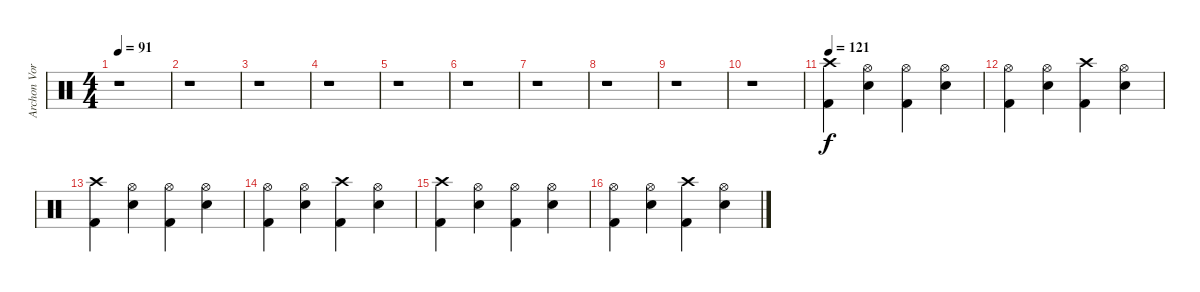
\track ("Archon Vorskaath" "Archon Vor") {instrument percussion}
\staff {score}
\articulation defaults
\ts (4 4)
\tempo 91
\clef neutral
\ks c
r.1{dy f} |
r.1 |
r.1 |
r.1 |
r.1 |
r.1 |
r.1 |
r.1 |
r.1 |
r.1 |
\tempo 121
("Crash high (hit)" "Kick (hit) 2").4 ("Hi-Hat (open)" "Electric Snare (hit)").4 ("Hi-Hat (open)" "Kick (hit) 2").4 ("Hi-Hat (open)" "Electric Snare (hit)").4 |
("Hi-Hat (open)" "Kick (hit) 2").4 ("Hi-Hat (open)" "Electric Snare (hit)").4 ("Crash high (hit)" "Kick (hit) 2").4 ("Hi-Hat (open)" "Electric Snare (hit)").4 |
("Crash high (hit)" "Kick (hit) 2").4 ("Hi-Hat (open)" "Electric Snare (hit)").4 ("Hi-Hat (open)" "Kick (hit) 2").4 ("Hi-Hat (open)" "Electric Snare (hit)").4 |
("Hi-Hat (open)" "Kick (hit) 2").4 ("Hi-Hat (open)" "Electric Snare (hit)").4 ("Crash high (hit)" "Kick (hit) 2").4 ("Hi-Hat (open)" "Electric Snare (hit)").4 |
("Crash high (hit)" "Kick (hit) 2").4 ("Hi-Hat (open)" "Electric Snare (hit)").4 ("Hi-Hat (open)" "Kick (hit) 2").4 ("Hi-Hat (open)" "Electric Snare (hit)").4 |
("Hi-Hat (open)" "Kick (hit) 2").4 ("Hi-Hat (open)" "Electric Snare (hit)").4 ("Crash high (hit)" "Kick (hit) 2").4 ("Hi-Hat (open)" "Electric Snare (hit)").4
